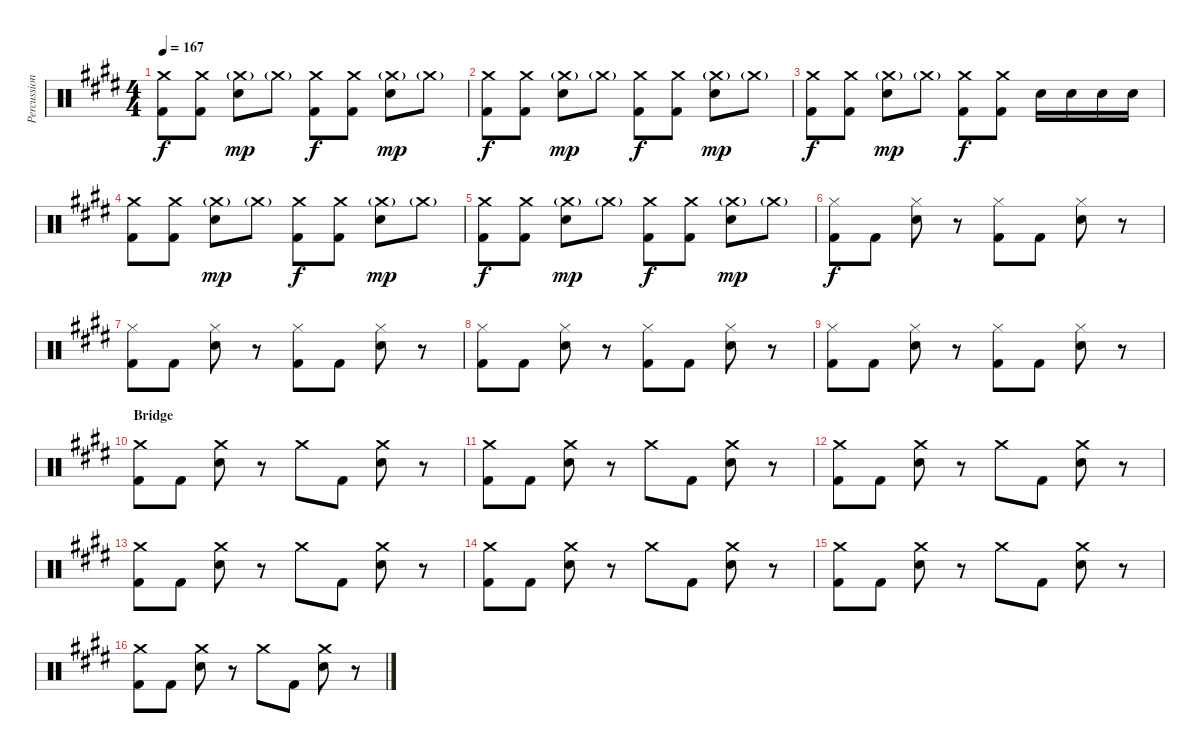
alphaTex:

\track ("Percussion" "Percussion") {instrument percussion}
\staff {score}
\articulation defaults
\ts (4 4)
\tempo 167
\clef neutral
\ks e
("Crash medium (hit)" "Kick (hit) 2").8{dy f} ("Crash medium (hit)" "Kick (hit) 2").8 ("Crash medium (hit)"{g} "Electric Snare (hit)").8{dy mp} "Crash medium (hit)"{g}.8 ("Crash medium (hit)" "Kick (hit) 2").8{dy f} ("Crash medium (hit)" "Kick (hit) 2").8 ("Crash medium (hit)"{g} "Electric Snare (hit)").8{dy mp} "Crash medium (hit)"{g}.8 |
("Crash medium (hit)" "Kick (hit) 2").8{dy f} ("Crash medium (hit)" "Kick (hit) 2").8 ("Crash medium (hit)"{g} "Electric Snare (hit)").8{dy mp} "Crash medium (hit)"{g}.8 ("Crash medium (hit)" "Kick (hit) 2").8{dy f} ("Crash medium (hit)" "Kick (hit) 2").8 ("Crash medium (hit)"{g} "Electric Snare (hit)").8{dy mp} "Crash medium (hit)"{g}.8 |
("Crash medium (hit)" "Kick (hit) 2").8{dy f} ("Crash medium (hit)" "Kick (hit) 2").8 ("Crash medium (hit)"{g} "Electric Snare (hit)").8{dy mp} "Crash medium (hit)"{g}.8 ("Crash medium (hit)" "Kick (hit) 2").8{dy f} ("Crash medium (hit)" "Kick (hit) 2").8 "Electric Snare (hit)".16 "Electric Snare (hit)".16 "Electric Snare (hit)".16 "Electric Snare (hit)".16 |
("Crash medium (hit)" "Kick (hit) 2").8 ("Crash medium (hit)" "Kick (hit) 2").8 ("Crash medium (hit)"{g} "Electric Snare (hit)").8{dy mp} "Crash medium (hit)"{g}.8 ("Crash medium (hit)" "Kick (hit) 2").8{dy f} ("Crash medium (hit)" "Kick (hit) 2").8 ("Crash medium (hit)"{g} "Electric Snare (hit)").8{dy mp} "Crash medium (hit)"{g}.8 |
("Crash medium (hit)" "Kick (hit) 2").8{dy f} ("Crash medium (hit)" "Kick (hit) 2").8 ("Crash medium (hit)"{g} "Electric Snare (hit)").8{dy mp} "Crash medium (hit)"{g}.8 ("Crash medium (hit)" "Kick (hit) 2").8{dy f} ("Crash medium (hit)" "Kick (hit) 2").8 ("Crash medium (hit)"{g} "Electric Snare (hit)").8{dy mp} "Crash medium (hit)"{g}.8 |
("Hi-Hat (closed)" "Kick (hit) 2").8{dy f} "Kick (hit) 2".8 ("Hi-Hat (closed)" "Electric Snare (hit)").8 r.8 ("Hi-Hat (closed)" "Kick (hit) 2").8 "Kick (hit) 2".8 ("Hi-Hat (closed)" "Electric Snare (hit)").8 r.8 |
("Hi-Hat (closed)" "Kick (hit) 2").8 "Kick (hit) 2".8 ("Hi-Hat (closed)" "Electric Snare (hit)").8 r.8 ("Hi-Hat (closed)" "Kick (hit) 2").8 "Kick (hit) 2".8 ("Hi-Hat (closed)" "Electric Snare (hit)").8 r.8 |
("Hi-Hat (closed)" "Kick (hit) 2").8 "Kick (hit) 2".8 ("Hi-Hat (closed)" "Electric Snare (hit)").8 r.8 ("Hi-Hat (closed)" "Kick (hit) 2").8 "Kick (hit) 2".8 ("Hi-Hat (closed)" "Electric Snare (hit)").8 r.8 |
("Hi-Hat (closed)" "Kick (hit) 2").8 "Kick (hit) 2".8 ("Hi-Hat (closed)" "Electric Snare (hit)").8 r.8 ("Hi-Hat (closed)" "Kick (hit) 2").8 "Kick (hit) 2".8 ("Hi-Hat (closed)" "Electric Snare (hit)").8 r.8 |
\section ("" "Bridge")
("Crash medium (hit)" "Kick (hit) 2").8 "Kick (hit) 2".8 ("Crash medium (hit)" "Electric Snare (hit)").8 r.8 "Crash medium (hit)".8 "Kick (hit) 2".8 ("Crash medium (hit)" "Electric Snare (hit)").8 r.8 |
("Crash medium (hit)" "Kick (hit) 2").8 "Kick (hit) 2".8 ("Crash medium (hit)" "Electric Snare (hit)").8 r.8 "Crash medium (hit)".8 "Kick (hit) 2".8 ("Crash medium (hit)" "Electric Snare (hit)").8 r.8 |
("Crash medium (hit)" "Kick (hit) 2").8 "Kick (hit) 2".8 ("Crash medium (hit)" "Electric Snare (hit)").8 r.8 "Crash medium (hit)".8 "Kick (hit) 2".8 ("Crash medium (hit)" "Electric Snare (hit)").8 r.8 |
("Crash medium (hit)" "Kick (hit) 2").8 "Kick (hit) 2".8 ("Crash medium (hit)" "Electric Snare (hit)").8 r.8 "Crash medium (hit)".8 "Kick (hit) 2".8 ("Crash medium (hit)" "Electric Snare (hit)").8 r.8 |
("Crash medium (hit)" "Kick (hit) 2").8 "Kick (hit) 2".8 ("Crash medium (hit)" "Electric Snare (hit)").8 r.8 "Crash medium (hit)".8 "Kick (hit) 2".8 ("Crash medium (hit)" "Electric Snare (hit)").8 r.8 |
("Crash medium (hit)" "Kick (hit) 2").8 "Kick (hit) 2".8 ("Crash medium (hit)" "Electric Snare (hit)").8 r.8 "Crash medium (hit)".8 "Kick (hit) 2".8 ("Crash medium (hit)" "Electric Snare (hit)").8 r.8 |
("Crash medium (hit)" "Kick (hit) 2").8 "Kick (hit) 2".8 ("Crash medium (hit)" "Electric Snare (hit)").8 r.8 "Crash medium (hit)".8 "Kick (hit) 2".8 ("Crash medium (hit)" "Electric Snare (hit)").8 r.8
